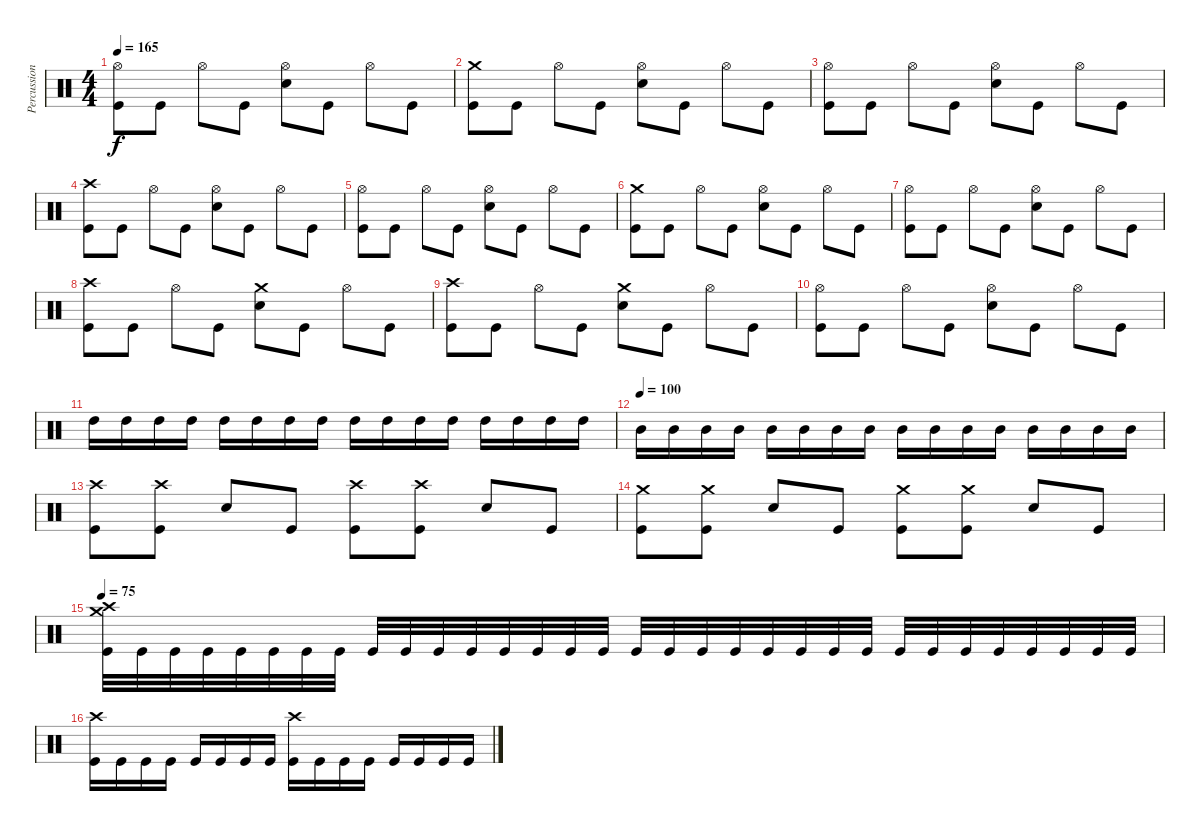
\track ("Percussion" "Percussion") {instrument percussion}
\staff {score}
\articulation defaults
\ts (4 4)
\tempo 165
\clef neutral
\ks c
("Hi-Hat (open)" "Kick (hit)").8{dy f} "Kick (hit)".8 "Hi-Hat (open)".8 "Kick (hit)".8 ("Hi-Hat (open)" "Electric Snare (hit)").8 "Kick (hit)".8 "Hi-Hat (open)".8 "Kick (hit)".8 |
("Crash medium (hit)" "Kick (hit)").8 "Kick (hit)".8 "Hi-Hat (open)".8 "Kick (hit)".8 ("Hi-Hat (open)" "Electric Snare (hit)").8 "Kick (hit)".8 "Hi-Hat (open)".8 "Kick (hit)".8 |
("Hi-Hat (open)" "Kick (hit)").8 "Kick (hit)".8 "Hi-Hat (open)".8 "Kick (hit)".8 ("Hi-Hat (open)" "Electric Snare (hit)").8 "Kick (hit)".8 "Hi-Hat (open)".8 "Kick (hit)".8 |
("Crash high (hit)" "Kick (hit)").8 "Kick (hit)".8 "Hi-Hat (open)".8 "Kick (hit)".8 ("Hi-Hat (open)" "Electric Snare (hit)").8 "Kick (hit)".8 "Hi-Hat (open)".8 "Kick (hit)".8 |
("Hi-Hat (open)" "Kick (hit)").8 "Kick (hit)".8 "Hi-Hat (open)".8 "Kick (hit)".8 ("Hi-Hat (open)" "Electric Snare (hit)").8 "Kick (hit)".8 "Hi-Hat (open)".8 "Kick (hit)".8 |
("Crash medium (hit)" "Kick (hit)").8 "Kick (hit)".8 "Hi-Hat (open)".8 "Kick (hit)".8 ("Hi-Hat (open)" "Electric Snare (hit)").8 "Kick (hit)".8 "Hi-Hat (open)".8 "Kick (hit)".8 |
("Hi-Hat (open)" "Kick (hit)").8 "Kick (hit)".8 "Hi-Hat (open)".8 "Kick (hit)".8 ("Hi-Hat (open)" "Electric Snare (hit)").8 "Kick (hit)".8 "Hi-Hat (open)".8 "Kick (hit)".8 |
("Crash high (hit)" "Kick (hit)").8 "Kick (hit)".8 "Hi-Hat (open)".8 "Kick (hit)".8 ("Crash medium (hit)" "Electric Snare (hit)").8 "Kick (hit)".8 "Hi-Hat (open)".8 "Kick (hit)".8 |
("Crash high (hit)" "Kick (hit)").8 "Kick (hit)".8 "Hi-Hat (open)".8 "Kick (hit)".8 ("Crash medium (hit)" "Electric Snare (hit)").8 "Kick (hit)".8 "Hi-Hat (open)".8 "Kick (hit)".8 |
("Hi-Hat (open)" "Kick (hit)").8 "Kick (hit)".8 "Hi-Hat (open)".8 "Kick (hit)".8 ("Hi-Hat (open)" "Electric Snare (hit)").8 "Kick (hit)".8 "Hi-Hat (open)".8 "Kick (hit)".8 |
"High Tom (hit)".16 "High Tom (hit)".16 "High Tom (hit)".16 "High Tom (hit)".16 "High Tom (hit)".16 "High Tom (hit)".16 "High Tom (hit)".16 "High Tom (hit)".16 "High Tom (hit)".16 "High Tom (hit)".16 "High Tom (hit)".16 "High Tom (hit)".16 "High Tom (hit)".16 "High Tom (hit)".16 "High Tom (hit)".16 "High Tom (hit)".16 |
\tempo (100)
"Mid Tom (hit)".16 "Mid Tom (hit)".16 "Mid Tom (hit)".16 "Mid Tom (hit)".16 "Mid Tom (hit)".16 "Mid Tom (hit)".16 "Mid Tom (hit)".16 "Mid Tom (hit)".16 "Mid Tom (hit)".16 "Mid Tom (hit)".16 "Mid Tom (hit)".16 "Mid Tom (hit)".16 "Mid Tom (hit)".16 "Mid Tom (hit)".16 "Mid Tom (hit)".16 "Mid Tom (hit)".16 |
("Crash high (hit)" "Kick (hit)").8 ("Crash high (hit)" "Kick (hit)").8 "Electric Snare (hit)".8 "Kick (hit)".8 ("Crash high (hit)" "Kick (hit)").8 ("Crash high (hit)" "Kick (hit)").8 "Electric Snare (hit)".8 "Kick (hit)".8 |
("Crash medium (hit)" "Kick (hit)").8 ("Crash medium (hit)" "Kick (hit)").8 "Electric Snare (hit)".8 "Kick (hit)".8 ("Crash medium (hit)" "Kick (hit)").8 ("Crash medium (hit)" "Kick (hit)").8 "Electric Snare (hit)".8 "Kick (hit)".8 |
\tempo 75
("Crash medium (hit)" "Crash high (hit)" "Kick (hit)").32 "Kick (hit)".32 "Kick (hit)".32 "Kick (hit)".32 "Kick (hit)".32 "Kick (hit)".32 "Kick (hit)".32 "Kick (hit)".32 "Kick (hit)".32 "Kick (hit)".32 "Kick (hit)".32 "Kick (hit)".32 "Kick (hit)".32 "Kick (hit)".32 "Kick (hit)".32 "Kick (hit)".32 "Kick (hit)".32 "Kick (hit)".32 "Kick (hit)".32 "Kick (hit)".32 "Kick (hit)".32 "Kick (hit)".32 "Kick (hit)".32 "Kick (hit)".32 "Kick (hit)".32 "Kick (hit)".32 "Kick (hit)".32 "Kick (hit)".32 "Kick (hit)".32 "Kick (hit)".32 "Kick (hit)".32 "Kick (hit)".32 |
("Crash high (hit)" "Kick (hit)").16 "Kick (hit)".16 "Kick (hit)".16 "Kick (hit)".16 "Kick (hit)".16 "Kick (hit)".16 "Kick (hit)".16 "Kick (hit)".16 ("Crash high (hit)" "Kick (hit)").16 "Kick (hit)".16 "Kick (hit)".16 "Kick (hit)".16 "Kick (hit)".16 "Kick (hit)".16 "Kick (hit)".16 "Kick (hit)".16
